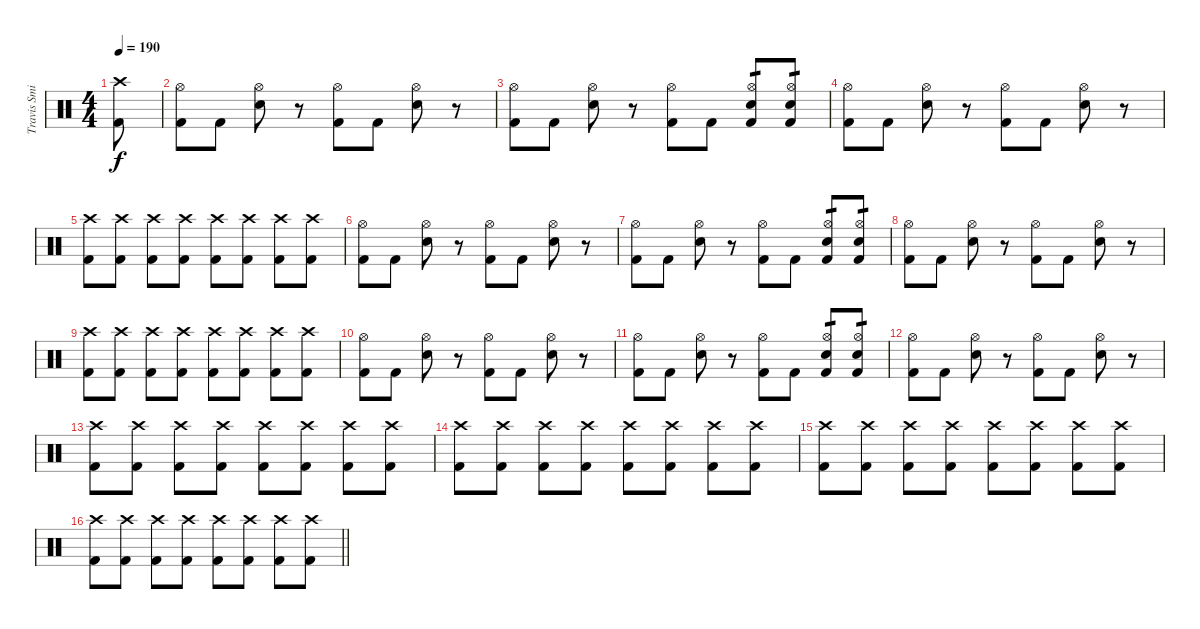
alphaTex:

\track ("Travis Smith" "Travis Smi") {instrument percussion}
\staff {score}
\articulation defaults
\ts (4 4)
\tempo 190
\clef neutral
\ks c
("Crash high (hit)" "Kick (hit) 2").8{dy f} |
("Hi-Hat (open)" "Kick (hit) 2").8 "Kick (hit) 2".8 ("Hi-Hat (open)" "Electric Snare (hit)").8 r.8 ("Hi-Hat (open)" "Kick (hit) 2").8 "Kick (hit) 2".8 ("Hi-Hat (open)" "Electric Snare (hit)").8 r.8 |
("Hi-Hat (open)" "Kick (hit) 2").8 "Kick (hit) 2".8 ("Hi-Hat (open)" "Electric Snare (hit)").8 r.8 ("Hi-Hat (open)" "Kick (hit) 2").8 "Kick (hit) 2".8 ("Hi-Hat (open)" "Electric Snare (hit)" "Kick (hit) 2").8{tp 1} ("Hi-Hat (open)" "Electric Snare (hit)" "Kick (hit) 2").8{tp 1} |
("Hi-Hat (open)" "Kick (hit) 2").8 "Kick (hit) 2".8 ("Hi-Hat (open)" "Electric Snare (hit)").8 r.8 ("Hi-Hat (open)" "Kick (hit) 2").8 "Kick (hit) 2".8 ("Hi-Hat (open)" "Electric Snare (hit)").8 r.8 |
("Crash high (hit)" "Kick (hit) 2").8 ("Crash high (hit)" "Kick (hit) 2").8 ("Crash high (hit)" "Kick (hit) 2").8 ("Crash high (hit)" "Kick (hit) 2").8 ("Crash high (hit)" "Kick (hit) 2").8 ("Crash high (hit)" "Kick (hit) 2").8 ("Crash high (hit)" "Kick (hit) 2").8 ("Crash high (hit)" "Kick (hit) 2").8 |
("Hi-Hat (open)" "Kick (hit) 2").8 "Kick (hit) 2".8 ("Hi-Hat (open)" "Electric Snare (hit)").8 r.8 ("Hi-Hat (open)" "Kick (hit) 2").8 "Kick (hit) 2".8 ("Hi-Hat (open)" "Electric Snare (hit)").8 r.8 |
("Hi-Hat (open)" "Kick (hit) 2").8 "Kick (hit) 2".8 ("Hi-Hat (open)" "Electric Snare (hit)").8 r.8 ("Hi-Hat (open)" "Kick (hit) 2").8 "Kick (hit) 2".8 ("Hi-Hat (open)" "Electric Snare (hit)" "Kick (hit) 2").8{tp 1} ("Hi-Hat (open)" "Electric Snare (hit)" "Kick (hit) 2").8{tp 1} |
("Hi-Hat (open)" "Kick (hit) 2").8 "Kick (hit) 2".8 ("Hi-Hat (open)" "Electric Snare (hit)").8 r.8 ("Hi-Hat (open)" "Kick (hit) 2").8 "Kick (hit) 2".8 ("Hi-Hat (open)" "Electric Snare (hit)").8 r.8 |
("Crash high (hit)" "Kick (hit) 2").8 ("Crash high (hit)" "Kick (hit) 2").8 ("Crash high (hit)" "Kick (hit) 2").8 ("Crash high (hit)" "Kick (hit) 2").8 ("Crash high (hit)" "Kick (hit) 2").8 ("Crash high (hit)" "Kick (hit) 2").8 ("Crash high (hit)" "Kick (hit) 2").8 ("Crash high (hit)" "Kick (hit) 2").8 |
("Hi-Hat (open)" "Kick (hit) 2").8 "Kick (hit) 2".8 ("Hi-Hat (open)" "Electric Snare (hit)").8 r.8 ("Hi-Hat (open)" "Kick (hit) 2").8 "Kick (hit) 2".8 ("Hi-Hat (open)" "Electric Snare (hit)").8 r.8 |
("Hi-Hat (open)" "Kick (hit) 2").8 "Kick (hit) 2".8 ("Hi-Hat (open)" "Electric Snare (hit)").8 r.8 ("Hi-Hat (open)" "Kick (hit) 2").8 "Kick (hit) 2".8 ("Hi-Hat (open)" "Electric Snare (hit)" "Kick (hit) 2").8{tp 1} ("Hi-Hat (open)" "Electric Snare (hit)" "Kick (hit) 2").8{tp 1} |
("Hi-Hat (open)" "Kick (hit) 2").8 "Kick (hit) 2".8 ("Hi-Hat (open)" "Electric Snare (hit)").8 r.8 ("Hi-Hat (open)" "Kick (hit) 2").8 "Kick (hit) 2".8 ("Hi-Hat (open)" "Electric Snare (hit)").8 r.8 |
("Crash high (hit)" "Kick (hit) 2").8 ("Crash high (hit)" "Kick (hit) 2").8 ("Crash high (hit)" "Kick (hit) 2").8 ("Crash high (hit)" "Kick (hit) 2").8 ("Crash high (hit)" "Kick (hit) 2").8 ("Crash high (hit)" "Kick (hit) 2").8 ("Crash high (hit)" "Kick (hit) 2").8 ("Crash high (hit)" "Kick (hit) 2").8 |
("Crash high (hit)" "Kick (hit) 2").8 ("Crash high (hit)" "Kick (hit) 2").8 ("Crash high (hit)" "Kick (hit) 2").8 ("Crash high (hit)" "Kick (hit) 2").8 ("Crash high (hit)" "Kick (hit) 2").8 ("Crash high (hit)" "Kick (hit) 2").8 ("Crash high (hit)" "Kick (hit) 2").8 ("Crash high (hit)" "Kick (hit) 2").8 |
("Crash high (hit)" "Kick (hit) 2").8 ("Crash high (hit)" "Kick (hit) 2").8 ("Crash high (hit)" "Kick (hit) 2").8 ("Crash high (hit)" "Kick (hit) 2").8 ("Crash high (hit)" "Kick (hit) 2").8 ("Crash high (hit)" "Kick (hit) 2").8 ("Crash high (hit)" "Kick (hit) 2").8 ("Crash high (hit)" "Kick (hit) 2").8 |
\barLineRight lightlight
("Crash high (hit)" "Kick (hit) 2").8 ("Crash high (hit)" "Kick (hit) 2").8 ("Crash high (hit)" "Kick (hit) 2").8 ("Crash high (hit)" "Kick (hit) 2").8 ("Crash high (hit)" "Kick (hit) 2").8 ("Crash high (hit)" "Kick (hit) 2").8 ("Crash high (hit)" "Kick (hit) 2").8 ("Crash high (hit)" "Kick (hit) 2").8
